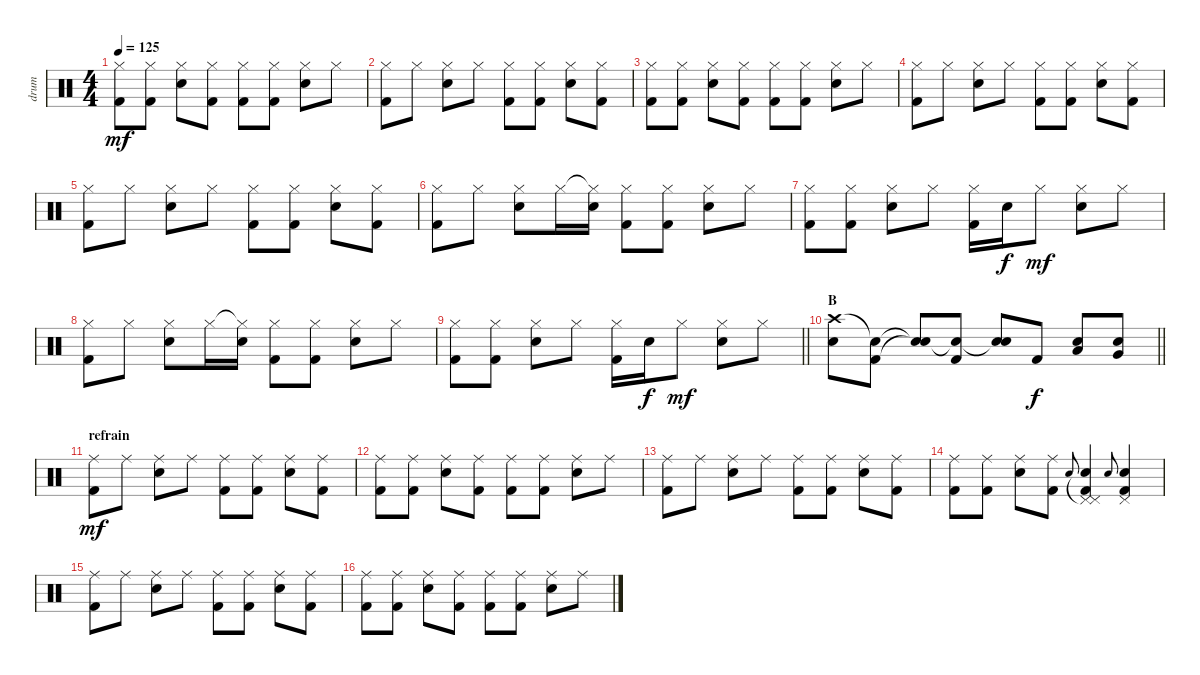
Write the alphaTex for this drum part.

\track ("drum" "drum") {instrument percussion}
\staff {score}
\articulation defaults
\ts (4 4)
\tempo 125
\clef neutral
\ks c
("Hi-Hat (closed)" "Kick (hit) 2").8{dy mf} ("Hi-Hat (closed)" "Kick (hit) 2").8 ("Hi-Hat (closed)" "Electric Snare (hit)").8 ("Hi-Hat (closed)" "Kick (hit) 2").8 ("Hi-Hat (closed)" "Kick (hit) 2").8 ("Hi-Hat (closed)" "Kick (hit) 2").8 ("Hi-Hat (closed)" "Electric Snare (hit)").8 "Hi-Hat (closed)".8 |
("Hi-Hat (closed)" "Kick (hit) 2").8 "Hi-Hat (closed)".8 ("Hi-Hat (closed)" "Electric Snare (hit)").8 "Hi-Hat (closed)".8 ("Hi-Hat (closed)" "Kick (hit) 2").8 ("Hi-Hat (closed)" "Kick (hit) 2").8 ("Hi-Hat (closed)" "Electric Snare (hit)").8 ("Hi-Hat (closed)" "Kick (hit) 2").8 |
("Hi-Hat (closed)" "Kick (hit) 2").8 ("Hi-Hat (closed)" "Kick (hit) 2").8 ("Hi-Hat (closed)" "Electric Snare (hit)").8 ("Hi-Hat (closed)" "Kick (hit) 2").8 ("Hi-Hat (closed)" "Kick (hit) 2").8 ("Hi-Hat (closed)" "Kick (hit) 2").8 ("Hi-Hat (closed)" "Electric Snare (hit)").8 "Hi-Hat (closed)".8 |
("Hi-Hat (closed)" "Kick (hit) 2").8 "Hi-Hat (closed)".8 ("Hi-Hat (closed)" "Electric Snare (hit)").8 "Hi-Hat (closed)".8 ("Hi-Hat (closed)" "Kick (hit) 2").8 ("Hi-Hat (closed)" "Kick (hit) 2").8 ("Hi-Hat (closed)" "Electric Snare (hit)").8 ("Hi-Hat (closed)" "Kick (hit) 2").8 |
("Hi-Hat (closed)" "Kick (hit) 2").8 "Hi-Hat (closed)".8 ("Hi-Hat (closed)" "Electric Snare (hit)").8 "Hi-Hat (closed)".8 ("Hi-Hat (closed)" "Kick (hit) 2").8 ("Hi-Hat (closed)" "Kick (hit) 2").8 ("Hi-Hat (closed)" "Electric Snare (hit)").8 ("Hi-Hat (closed)" "Kick (hit) 2").8 |
("Hi-Hat (closed)" "Kick (hit) 2").8 "Hi-Hat (closed)".8 ("Hi-Hat (closed)" "Electric Snare (hit)").8 "Hi-Hat (closed)".16 ("Hi-Hat (closed)"{t} "Electric Snare (hit)").16 ("Hi-Hat (closed)" "Kick (hit) 2").8 ("Hi-Hat (closed)" "Kick (hit) 2").8 ("Hi-Hat (closed)" "Electric Snare (hit)").8 "Hi-Hat (closed)".8 |
("Hi-Hat (closed)" "Kick (hit) 2").8 ("Hi-Hat (closed)" "Kick (hit) 2").8 ("Hi-Hat (closed)" "Electric Snare (hit)").8 "Hi-Hat (closed)".8 ("Hi-Hat (closed)" "Kick (hit) 2").16 "Electric Snare (hit)".16{dy f} "Hi-Hat (closed)".8{dy mf} ("Hi-Hat (closed)" "Electric Snare (hit)").8 "Hi-Hat (closed)".8 |
("Hi-Hat (closed)" "Kick (hit) 2").8 "Hi-Hat (closed)".8 ("Hi-Hat (closed)" "Electric Snare (hit)").8 "Hi-Hat (closed)".16 ("Hi-Hat (closed)"{t} "Electric Snare (hit)").16 ("Hi-Hat (closed)" "Kick (hit) 2").8 ("Hi-Hat (closed)" "Kick (hit) 2").8 ("Hi-Hat (closed)" "Electric Snare (hit)").8 "Hi-Hat (closed)".8 |
\barLineRight lightlight
("Hi-Hat (closed)" "Kick (hit) 2").8 ("Hi-Hat (closed)" "Kick (hit) 2").8 ("Hi-Hat (closed)" "Electric Snare (hit)").8 "Hi-Hat (closed)".8 ("Hi-Hat (closed)" "Kick (hit) 2").16 "Electric Snare (hit)".16{dy f} "Hi-Hat (closed)".8{dy mf} ("Hi-Hat (closed)" "Electric Snare (hit)").8 "Hi-Hat (closed)".8 |
\section ("" "B")
\barLineRight lightlight
("Crash high (hit)" "Electric Snare (hit)").8 ("Snare (hit)"{t} "Kick (hit) 2").8 ("Snare (hit)"{t} "Snare (hit)"{t}).8 ("Snare (hit)"{t} "Kick (hit) 2").8 ("Snare (hit)"{t} "Electric Snare (hit)").8 "Kick (hit) 2".8{dy f} ("Low Floor Tom (hit)" "Electric Snare (hit)").8 ("Very Low Tom (hit)" "Electric Snare (hit)").8 |
\section ("" "refrain")
("Ride (middle)" "Kick (hit) 2").8{dy mf} "Ride (middle)".8 ("Ride (middle)" "Electric Snare (hit)").8 "Ride (middle)".8 ("Ride (middle)" "Kick (hit) 2").8 ("Ride (middle)" "Kick (hit) 2").8 ("Ride (middle)" "Electric Snare (hit)").8 ("Ride (middle)" "Kick (hit) 2").8 |
("Ride (middle)" "Kick (hit) 2").8 ("Ride (middle)" "Kick (hit) 2").8 ("Ride (middle)" "Electric Snare (hit)").8 ("Ride (middle)" "Kick (hit) 2").8 ("Ride (middle)" "Kick (hit) 2").8 ("Ride (middle)" "Kick (hit) 2").8 ("Ride (middle)" "Electric Snare (hit)").8 "Ride (middle)".8 |
("Ride (middle)" "Kick (hit) 2").8 "Ride (middle)".8 ("Ride (middle)" "Electric Snare (hit)").8 "Ride (middle)".8 ("Ride (middle)" "Kick (hit) 2").8 ("Ride (middle)" "Kick (hit) 2").8 ("Ride (middle)" "Electric Snare (hit)").8 ("Ride (middle)" "Kick (hit) 2").8 |
("Ride (middle)" "Kick (hit) 2").8 ("Ride (middle)" "Kick (hit) 2").8 ("Ride (middle)" "Electric Snare (hit)").8 ("Ride (middle)" "Kick (hit) 2").8 "Electric Snare (hit)".8{gr onbeat} ("Pedal Hi-Hat (hit)"{t} "Pedal Hi-Hat (hit)" "Electric Snare (hit)" "Kick (hit) 2").4 "Electric Snare (hit)".8{gr onbeat} ("Pedal Hi-Hat (hit)" "Electric Snare (hit)" "Kick (hit) 2").4 |
("Ride (middle)" "Kick (hit) 2").8 "Ride (middle)".8 ("Ride (middle)" "Electric Snare (hit)").8 "Ride (middle)".8 ("Ride (middle)" "Kick (hit) 2").8 ("Ride (middle)" "Kick (hit) 2").8 ("Ride (middle)" "Electric Snare (hit)").8 ("Ride (middle)" "Kick (hit) 2").8 |
("Ride (middle)" "Kick (hit) 2").8 ("Ride (middle)" "Kick (hit) 2").8 ("Ride (middle)" "Electric Snare (hit)").8 ("Ride (middle)" "Kick (hit) 2").8 ("Ride (middle)" "Kick (hit) 2").8 ("Ride (middle)" "Kick (hit) 2").8 ("Ride (middle)" "Electric Snare (hit)").8 "Ride (middle)".8
